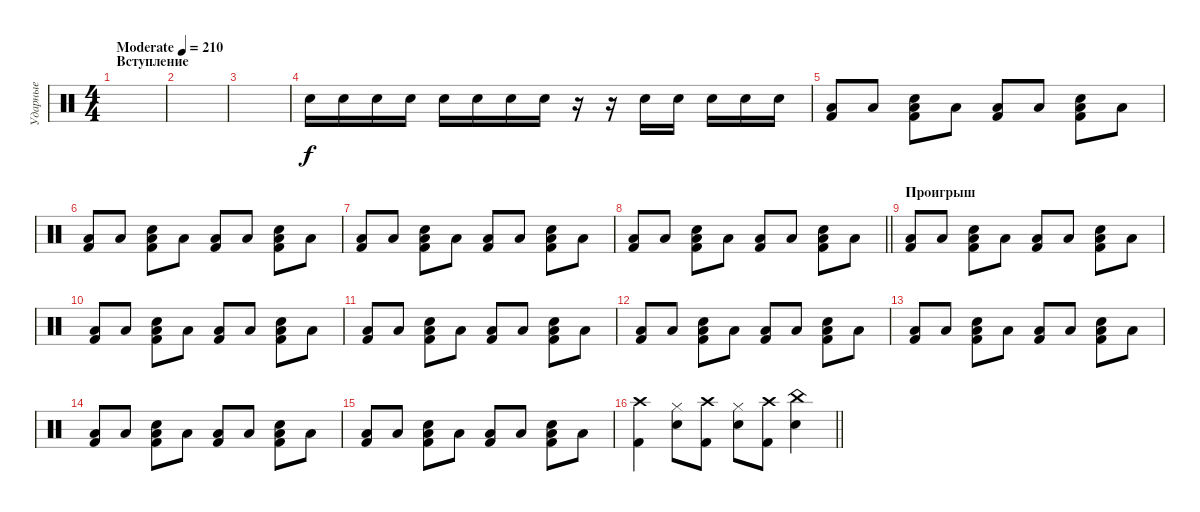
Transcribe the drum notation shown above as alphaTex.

\track ("Ударные" "Ударные") {instrument percussion}
\staff {score}
\articulation defaults
\ts (4 4)
\section ("" "Вступление")
\tempo (210 "Moderate")
\clef neutral
\ks c
|
|
|
"Snare (hit)".16 "Snare (hit)".16 "Snare (hit)".16 "Snare (hit)".16 "Snare (hit)".16 "Snare (hit)".16 "Snare (hit)".16 "Snare (hit)".16 r.16 r.16 "Electric Snare (hit)".16 "Electric Snare (hit)".16 "Electric Snare (hit)".16 "Electric Snare (hit)".16 "Electric Snare (hit)".16 |
("Kick (hit) 2" "Low Floor Tom (hit)").8 "Low Tom (hit)".8 ("Kick (hit) 2" "Low Floor Tom (hit)" "Electric Snare (hit)").8 "Low Tom (hit)".8 ("Kick (hit) 2" "Low Floor Tom (hit)").8 "Low Tom (hit)".8 ("Kick (hit) 2" "Low Floor Tom (hit)" "Electric Snare (hit)").8 "Low Tom (hit)".8 |
("Kick (hit) 2" "Low Floor Tom (hit)").8 "Low Tom (hit)".8 ("Kick (hit) 2" "Low Floor Tom (hit)" "Electric Snare (hit)").8 "Low Tom (hit)".8 ("Kick (hit) 2" "Low Floor Tom (hit)").8 "Low Tom (hit)".8 ("Kick (hit) 2" "Low Floor Tom (hit)" "Electric Snare (hit)").8 "Low Tom (hit)".8 |
("Kick (hit) 2" "Low Floor Tom (hit)").8 "Low Tom (hit)".8 ("Kick (hit) 2" "Low Floor Tom (hit)" "Electric Snare (hit)").8 "Low Tom (hit)".8 ("Kick (hit) 2" "Low Floor Tom (hit)").8 "Low Tom (hit)".8 ("Kick (hit) 2" "Low Floor Tom (hit)" "Electric Snare (hit)").8 "Low Tom (hit)".8 |
\barLineRight lightlight
("Kick (hit) 2" "Low Floor Tom (hit)").8 "Low Tom (hit)".8 ("Kick (hit) 2" "Low Floor Tom (hit)" "Electric Snare (hit)").8 "Low Tom (hit)".8 ("Kick (hit) 2" "Low Floor Tom (hit)").8 "Low Tom (hit)".8 ("Kick (hit) 2" "Low Floor Tom (hit)" "Electric Snare (hit)").8 "Low Tom (hit)".8 |
\section ("" "Проигрыш")
("Kick (hit) 2" "Low Floor Tom (hit)").8 "Low Tom (hit)".8 ("Kick (hit) 2" "Low Floor Tom (hit)" "Electric Snare (hit)").8 "Low Tom (hit)".8 ("Kick (hit) 2" "Low Floor Tom (hit)").8 "Low Tom (hit)".8 ("Kick (hit) 2" "Low Floor Tom (hit)" "Electric Snare (hit)").8 "Low Tom (hit)".8 |
("Kick (hit) 2" "Low Floor Tom (hit)").8 "Low Tom (hit)".8 ("Kick (hit) 2" "Low Floor Tom (hit)" "Electric Snare (hit)").8 "Low Tom (hit)".8 ("Kick (hit) 2" "Low Floor Tom (hit)").8 "Low Tom (hit)".8 ("Kick (hit) 2" "Low Floor Tom (hit)" "Electric Snare (hit)").8 "Low Tom (hit)".8 |
("Kick (hit) 2" "Low Floor Tom (hit)").8 "Low Tom (hit)".8 ("Kick (hit) 2" "Low Floor Tom (hit)" "Electric Snare (hit)").8 "Low Tom (hit)".8 ("Kick (hit) 2" "Low Floor Tom (hit)").8 "Low Tom (hit)".8 ("Kick (hit) 2" "Low Floor Tom (hit)" "Electric Snare (hit)").8 "Low Tom (hit)".8 |
("Kick (hit) 2" "Low Floor Tom (hit)").8 "Low Tom (hit)".8 ("Kick (hit) 2" "Low Floor Tom (hit)" "Electric Snare (hit)").8 "Low Tom (hit)".8 ("Kick (hit) 2" "Low Floor Tom (hit)").8 "Low Tom (hit)".8 ("Kick (hit) 2" "Low Floor Tom (hit)" "Electric Snare (hit)").8 "Low Tom (hit)".8 |
("Kick (hit) 2" "Low Floor Tom (hit)").8 "Low Tom (hit)".8 ("Kick (hit) 2" "Low Floor Tom (hit)" "Electric Snare (hit)").8 "Low Tom (hit)".8 ("Kick (hit) 2" "Low Floor Tom (hit)").8 "Low Tom (hit)".8 ("Kick (hit) 2" "Low Floor Tom (hit)" "Electric Snare (hit)").8 "Low Tom (hit)".8 |
("Kick (hit) 2" "Low Floor Tom (hit)").8 "Low Tom (hit)".8 ("Kick (hit) 2" "Low Floor Tom (hit)" "Electric Snare (hit)").8 "Low Tom (hit)".8 ("Kick (hit) 2" "Low Floor Tom (hit)").8 "Low Tom (hit)".8 ("Kick (hit) 2" "Low Floor Tom (hit)" "Electric Snare (hit)").8 "Low Tom (hit)".8 |
("Kick (hit) 2" "Low Floor Tom (hit)").8 "Low Tom (hit)".8 ("Kick (hit) 2" "Low Floor Tom (hit)" "Electric Snare (hit)").8 "Low Tom (hit)".8 ("Kick (hit) 2" "Low Floor Tom (hit)").8 "Low Tom (hit)".8 ("Kick (hit) 2" "Low Floor Tom (hit)" "Electric Snare (hit)").8 "Low Tom (hit)".8 |
\barLineRight lightlight
("Kick (hit) 2" "Crash high (hit)").4 ("Electric Snare (hit)" "Hi-Hat (closed)").8 ("Kick (hit) 2" "Crash high (hit)").8 ("Electric Snare (hit)" "Hi-Hat (closed)").8 ("Kick (hit) 2" "Crash high (hit)").8 ("Electric Snare (hit)" "China (hit)").4
